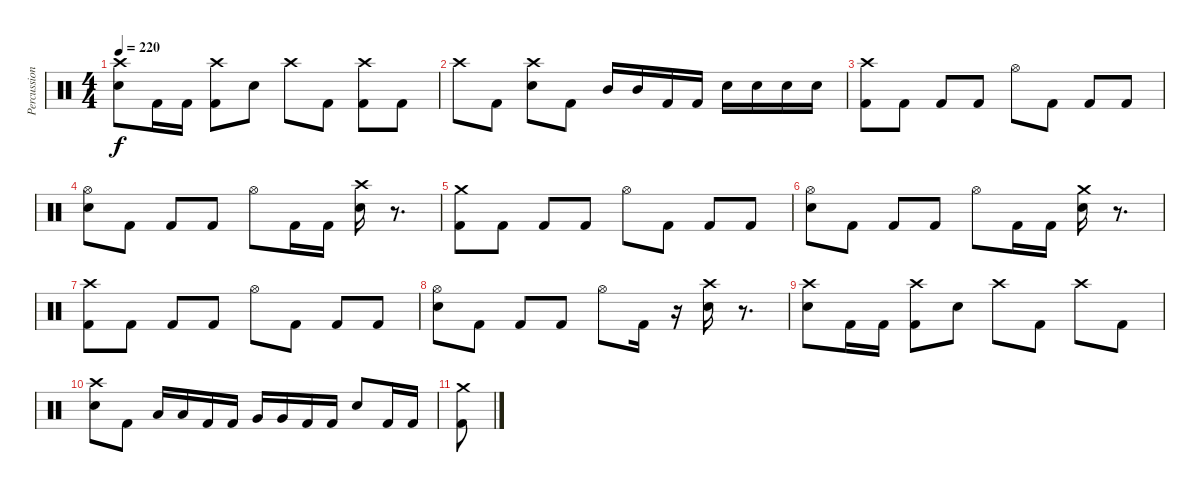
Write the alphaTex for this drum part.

\track ("Percussion (Dan Wilding)" "Percussion") {instrument percussion}
\staff {score}
\articulation defaults
\ts (4 4)
\tempo 220
\clef neutral
\ks c
("Crash high (hit)" "Electric Snare (hit)").8{dy f} "Kick (hit) 2".16 "Kick (hit) 2".16 ("Crash high (hit)" "Kick (hit) 2").8 "Electric Snare (hit)".8 "Crash high (hit)".8 "Kick (hit) 2".8 ("Crash high (hit)" "Kick (hit) 2").8 "Kick (hit) 2".8 |
"Crash high (hit)".8 "Kick (hit) 2".8 ("Crash high (hit)" "Electric Snare (hit)").8 "Kick (hit) 2".8 "Mid Tom (hit)".16 "Mid Tom (hit)".16 "Kick (hit) 2".16 "Kick (hit) 2".16 "Electric Snare (hit)".16 "Electric Snare (hit)".16 "Electric Snare (hit)".16 "Electric Snare (hit)".16 |
("Crash high (hit)" "Kick (hit) 2").8 "Kick (hit) 2".8 "Kick (hit) 2".8 "Kick (hit) 2".8 "Hi-Hat (open)".8 "Kick (hit) 2".8 "Kick (hit) 2".8 "Kick (hit) 2".8 |
("Hi-Hat (open)" "Electric Snare (hit)").8 "Kick (hit) 2".8 "Kick (hit) 2".8 "Kick (hit) 2".8 "Hi-Hat (open)".8 "Kick (hit) 2".16 "Kick (hit) 2".16 ("Crash high (hit)" "Electric Snare (hit)").16 r.8{d} |
("Crash medium (hit)" "Kick (hit) 2").8 "Kick (hit) 2".8 "Kick (hit) 2".8 "Kick (hit) 2".8 "Hi-Hat (open)".8 "Kick (hit) 2".8 "Kick (hit) 2".8 "Kick (hit) 2".8 |
("Hi-Hat (open)" "Electric Snare (hit)").8 "Kick (hit) 2".8 "Kick (hit) 2".8 "Kick (hit) 2".8 "Hi-Hat (open)".8 "Kick (hit) 2".16 "Kick (hit) 2".16 ("Crash medium (hit)" "Electric Snare (hit)").16 r.8{d} |
("Crash high (hit)" "Kick (hit) 2").8 "Kick (hit) 2".8 "Kick (hit) 2".8 "Kick (hit) 2".8 "Hi-Hat (open)".8 "Kick (hit) 2".8 "Kick (hit) 2".8 "Kick (hit) 2".8 |
("Hi-Hat (open)" "Electric Snare (hit)").8 "Kick (hit) 2".8 "Kick (hit) 2".8 "Kick (hit) 2".8 "Hi-Hat (open)".8 "Kick (hit) 2".16 r.16 ("Crash high (hit)" "Electric Snare (hit)").16 r.8{d} |
("Crash high (hit)" "Electric Snare (hit)").8 "Kick (hit) 2".16 "Kick (hit) 2".16 ("Crash high (hit)" "Kick (hit) 2").8 "Electric Snare (hit)".8 "Crash high (hit)".8 "Kick (hit) 2".8 "Crash high (hit)".8 "Kick (hit) 2".8 |
("Crash high (hit)" "Electric Snare (hit)").8 "Kick (hit) 2".8 "Low Tom (hit)".16 "Low Tom (hit)".16 "Kick (hit) 2".16 "Kick (hit) 2".16 "Very Low Tom (hit)".16 "Very Low Tom (hit)".16 "Kick (hit) 2".16 "Kick (hit) 2".16 "Electric Snare (hit)".8 "Kick (hit) 2".16 "Kick (hit) 2".16 |
("Crash medium (hit)" "Kick (hit) 2").8
